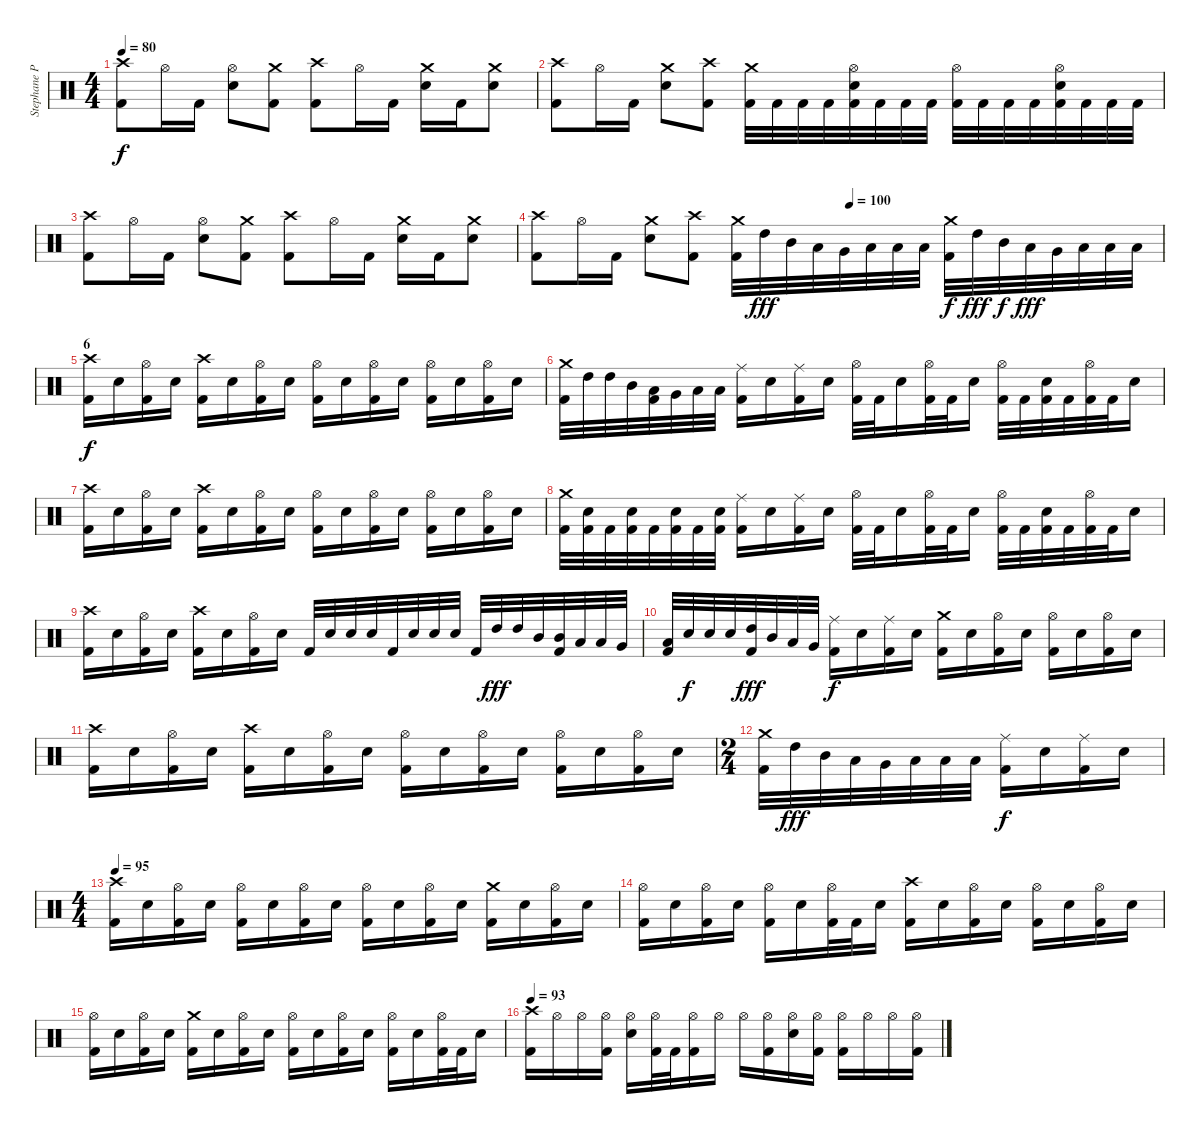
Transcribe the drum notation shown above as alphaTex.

\track ("Stephane Provencher " "Stephane P") {instrument percussion}
\staff {score}
\articulation defaults
\ts (4 4)
\tempo 80
\clef neutral
\ks c
("Crash high (hit)" "Kick (hit) 2").8{dy f} "Hi-Hat (open)".16 "Kick (hit) 2".16 ("Hi-Hat (open)" "Electric Snare (hit)").8 ("Crash medium (hit)" "Kick (hit) 2").8 ("Crash high (hit)" "Kick (hit) 2").8 "Hi-Hat (open)".16 "Kick (hit) 2".16 ("Crash medium (hit)" "Electric Snare (hit)").16 "Kick (hit) 2".16 ("Crash medium (hit)" "Electric Snare (hit)").8 |
("Crash high (hit)" "Kick (hit) 2").8 "Hi-Hat (open)".16 "Kick (hit) 2".16 ("Crash medium (hit)" "Electric Snare (hit)").8 ("Crash high (hit)" "Kick (hit) 2").8 ("Crash medium (hit)" "Kick (hit) 2").32 "Kick (hit) 2".32 "Kick (hit) 2".32 "Kick (hit) 2".32 ("Hi-Hat (open)" "Electric Snare (hit)" "Kick (hit) 2").32 "Kick (hit) 2".32 "Kick (hit) 2".32 "Kick (hit) 2".32 ("Hi-Hat (open)" "Kick (hit) 2").32 "Kick (hit) 2".32 "Kick (hit) 2".32 "Kick (hit) 2".32 ("Hi-Hat (open)" "Electric Snare (hit)" "Kick (hit) 2").32 "Kick (hit) 2".32 "Kick (hit) 2".32 "Kick (hit) 2".32 |
("Crash high (hit)" "Kick (hit) 2").8 "Hi-Hat (open)".16 "Kick (hit) 2".16 ("Hi-Hat (open)" "Electric Snare (hit)").8 ("Crash medium (hit)" "Kick (hit) 2").8 ("Crash high (hit)" "Kick (hit) 2").8 "Hi-Hat (open)".16 "Kick (hit) 2".16 ("Crash medium (hit)" "Electric Snare (hit)").16 "Kick (hit) 2".16 ("Crash medium (hit)" "Electric Snare (hit)").8 |
\tempo (100 0.5)
("Crash high (hit)" "Kick (hit) 2").8 "Hi-Hat (open)".16 "Kick (hit) 2".16 ("Crash medium (hit)" "Electric Snare (hit)").8 ("Crash high (hit)" "Kick (hit) 2").8 ("Crash medium (hit)" "Kick (hit) 2").32 "High Tom (hit)".32{dy fff} "Mid Tom (hit)".32 "Low Tom (hit)".32 "Very Low Tom (hit)".32 "Low Floor Tom (hit)".32 "Low Floor Tom (hit)".32 "Low Floor Tom (hit)".32 ("Crash medium (hit)" "Kick (hit) 2").32{dy f} "High Tom (hit)".32{dy fff} "Mid Tom (hit)".32{dy f} "Low Tom (hit)".32{dy fff} "Very Low Tom (hit)".32 "Low Floor Tom (hit)".32 "Low Floor Tom (hit)".32 "Low Floor Tom (hit)".32 |
\section ("" "6")
("Crash high (hit)" "Kick (hit) 2").16{dy f} "Electric Snare (hit)".16 ("Hi-Hat (open)" "Kick (hit) 2").16 "Electric Snare (hit)".16 ("Crash high (hit)" "Kick (hit) 2").16 "Electric Snare (hit)".16 ("Hi-Hat (open)" "Kick (hit) 2").16 "Electric Snare (hit)".16 ("Hi-Hat (open)" "Kick (hit) 2").16 "Electric Snare (hit)".16 ("Hi-Hat (open)" "Kick (hit) 2").16 "Electric Snare (hit)".16 ("Hi-Hat (open)" "Kick (hit) 2").16 "Electric Snare (hit)".16 ("Hi-Hat (open)" "Kick (hit) 2").16 "Electric Snare (hit)".16 |
("Crash medium (hit)" "Kick (hit) 2").32 "High Tom (hit)".32 "High Tom (hit)".32 "Mid Tom (hit)".32 ("Low Tom (hit)" "Kick (hit) 2").32 "Very Low Tom (hit)".32 "Low Floor Tom (hit)".32 "Low Floor Tom (hit)".32 ("Ride (middle)" "Kick (hit) 2").16 "Electric Snare (hit)".16 ("Ride (middle)" "Kick (hit) 2").16 "Electric Snare (hit)".16 ("Hi-Hat (open)" "Kick (hit) 2").32 "Kick (hit) 2".32 "Electric Snare (hit)".16 ("Hi-Hat (open)" "Kick (hit) 2").32 "Kick (hit) 2".32 "Electric Snare (hit)".16 ("Hi-Hat (open)" "Kick (hit) 2").32 "Kick (hit) 2".32 ("Electric Snare (hit)" "Kick (hit) 2").32 "Kick (hit) 2".32 ("Hi-Hat (open)" "Kick (hit) 2").32 "Kick (hit) 2".32 "Electric Snare (hit)".16 |
("Crash high (hit)" "Kick (hit) 2").16 "Electric Snare (hit)".16 ("Hi-Hat (open)" "Kick (hit) 2").16 "Electric Snare (hit)".16 ("Crash high (hit)" "Kick (hit) 2").16 "Electric Snare (hit)".16 ("Hi-Hat (open)" "Kick (hit) 2").16 "Electric Snare (hit)".16 ("Hi-Hat (open)" "Kick (hit) 2").16 "Electric Snare (hit)".16 ("Hi-Hat (open)" "Kick (hit) 2").16 "Electric Snare (hit)".16 ("Hi-Hat (open)" "Kick (hit) 2").16 "Electric Snare (hit)".16 ("Hi-Hat (open)" "Kick (hit) 2").16 "Electric Snare (hit)".16 |
("Crash medium (hit)" "Kick (hit) 2").32 ("Electric Snare (hit)" "Kick (hit) 2").32 "Kick (hit) 2".32 ("Electric Snare (hit)" "Kick (hit) 2").32 "Kick (hit) 2".32 ("Electric Snare (hit)" "Kick (hit) 2").32 "Kick (hit) 2".32 ("Electric Snare (hit)" "Kick (hit) 2").32 ("Ride (middle)" "Kick (hit) 2").16 "Electric Snare (hit)".16 ("Ride (middle)" "Kick (hit) 2").16 "Electric Snare (hit)".16 ("Hi-Hat (open)" "Kick (hit) 2").32 "Kick (hit) 2".32 "Electric Snare (hit)".16 ("Hi-Hat (open)" "Kick (hit) 2").32 "Kick (hit) 2".32 "Electric Snare (hit)".16 ("Hi-Hat (open)" "Kick (hit) 2").32 "Kick (hit) 2".32 ("Electric Snare (hit)" "Kick (hit) 2").32 "Kick (hit) 2".32 ("Hi-Hat (open)" "Kick (hit) 2").32 "Kick (hit) 2".32 "Electric Snare (hit)".16 |
("Crash high (hit)" "Kick (hit) 2").16 "Electric Snare (hit)".16 ("Hi-Hat (open)" "Kick (hit) 2").16 "Electric Snare (hit)".16 ("Crash high (hit)" "Kick (hit) 2").16 "Electric Snare (hit)".16 ("Hi-Hat (open)" "Kick (hit) 2").16 "Electric Snare (hit)".16 "Kick (hit) 2".32 "Electric Snare (hit)".32 "Electric Snare (hit)".32 "Electric Snare (hit)".32 "Kick (hit) 2".32 "Electric Snare (hit)".32 "Electric Snare (hit)".32 "Electric Snare (hit)".32 "Kick (hit) 2".32 "High Tom (hit)".32{dy fff} "High Tom (hit)".32 "Mid Tom (hit)".32 ("Mid Tom (hit)" "Kick (hit) 2").32 "Low Tom (hit)".32 "Low Tom (hit)".32 "Very Low Tom (hit)".32 |
("Low Floor Tom (hit)" "Kick (hit) 2").32 "Electric Snare (hit)".32{dy f} "Electric Snare (hit)".32 "Electric Snare (hit)".32 ("High Tom (hit)" "Kick (hit) 2").32{dy fff} "Mid Tom (hit)".32 "Low Tom (hit)".32 "Very Low Tom (hit)".32 ("Ride (middle)" "Kick (hit) 2").16{dy f} "Electric Snare (hit)".16 ("Ride (middle)" "Kick (hit) 2").16 "Electric Snare (hit)".16 ("Crash medium (hit)" "Kick (hit) 2").16 "Electric Snare (hit)".16 ("Hi-Hat (open)" "Kick (hit) 2").16 "Electric Snare (hit)".16 ("Hi-Hat (open)" "Kick (hit) 2").16 "Electric Snare (hit)".16 ("Hi-Hat (open)" "Kick (hit) 2").16 "Electric Snare (hit)".16 |
("Crash high (hit)" "Kick (hit) 2").16 "Electric Snare (hit)".16 ("Hi-Hat (open)" "Kick (hit) 2").16 "Electric Snare (hit)".16 ("Crash high (hit)" "Kick (hit) 2").16 "Electric Snare (hit)".16 ("Hi-Hat (open)" "Kick (hit) 2").16 "Electric Snare (hit)".16 ("Hi-Hat (open)" "Kick (hit) 2").16 "Electric Snare (hit)".16 ("Hi-Hat (open)" "Kick (hit) 2").16 "Electric Snare (hit)".16 ("Hi-Hat (open)" "Kick (hit) 2").16 "Electric Snare (hit)".16 ("Hi-Hat (open)" "Kick (hit) 2").16 "Electric Snare (hit)".16 |
\ts (2 4)
("Crash medium (hit)" "Kick (hit) 2").32 "High Tom (hit)".32{dy fff} "Mid Tom (hit)".32 "Low Tom (hit)".32 "Very Low Tom (hit)".32 "Low Floor Tom (hit)".32 "Low Floor Tom (hit)".32 "Low Floor Tom (hit)".32 ("Ride (middle)" "Kick (hit) 2").16{dy f} "Electric Snare (hit)".16 ("Ride (middle)" "Kick (hit) 2").16 "Electric Snare (hit)".16 |
\ts (4 4)
\tempo 95
("Crash high (hit)" "Kick (hit) 2").16 "Electric Snare (hit)".16 ("Hi-Hat (open)" "Kick (hit) 2").16 "Electric Snare (hit)".16 ("Hi-Hat (open)" "Kick (hit) 2").16 "Electric Snare (hit)".16 ("Hi-Hat (open)" "Kick (hit) 2").16 "Electric Snare (hit)".16 ("Hi-Hat (open)" "Kick (hit) 2").16 "Electric Snare (hit)".16 ("Hi-Hat (open)" "Kick (hit) 2").16 "Electric Snare (hit)".16 ("Crash medium (hit)" "Kick (hit) 2").16 "Electric Snare (hit)".16 ("Hi-Hat (open)" "Kick (hit) 2").16 "Electric Snare (hit)".16 |
("Hi-Hat (open)" "Kick (hit) 2").16 "Electric Snare (hit)".16 ("Hi-Hat (open)" "Kick (hit) 2").16 "Electric Snare (hit)".16 ("Hi-Hat (open)" "Kick (hit) 2").16 "Electric Snare (hit)".16 ("Hi-Hat (open)" "Kick (hit) 2").32 "Kick (hit) 2".32 "Electric Snare (hit)".16 ("Crash high (hit)" "Kick (hit) 2").16 "Electric Snare (hit)".16 ("Hi-Hat (open)" "Kick (hit) 2").16 "Electric Snare (hit)".16 ("Hi-Hat (open)" "Kick (hit) 2").16 "Electric Snare (hit)".16 ("Hi-Hat (open)" "Kick (hit) 2").16 "Electric Snare (hit)".16 |
("Hi-Hat (open)" "Kick (hit) 2").16 "Electric Snare (hit)".16 ("Hi-Hat (open)" "Kick (hit) 2").16 "Electric Snare (hit)".16 ("Crash medium (hit)" "Kick (hit) 2").16 "Electric Snare (hit)".16 ("Hi-Hat (open)" "Kick (hit) 2").16 "Electric Snare (hit)".16 ("Hi-Hat (open)" "Kick (hit) 2").16 "Electric Snare (hit)".16 ("Hi-Hat (open)" "Kick (hit) 2").16 "Electric Snare (hit)".16 ("Hi-Hat (open)" "Kick (hit) 2").16 "Electric Snare (hit)".16 ("Hi-Hat (open)" "Kick (hit) 2").32 "Kick (hit) 2".32 "Electric Snare (hit)".16 |
\tempo 93
("Crash high (hit)" "Kick (hit) 2").16 "Hi-Hat (open)".16 "Hi-Hat (open)".16 ("Hi-Hat (open)" "Kick (hit) 2").16 ("Hi-Hat (open)" "Electric Snare (hit)").16 ("Hi-Hat (open)" "Kick (hit) 2").32 "Kick (hit) 2".32 ("Hi-Hat (open)" "Kick (hit) 2").16 "Hi-Hat (open)".16 "Hi-Hat (open)".16 ("Hi-Hat (open)" "Kick (hit) 2").16 ("Hi-Hat (open)" "Electric Snare (hit)").16 ("Hi-Hat (open)" "Kick (hit) 2").16 ("Hi-Hat (open)" "Kick (hit) 2").16 "Hi-Hat (open)".16 "Hi-Hat (open)".16 ("Hi-Hat (open)" "Kick (hit) 2").16
